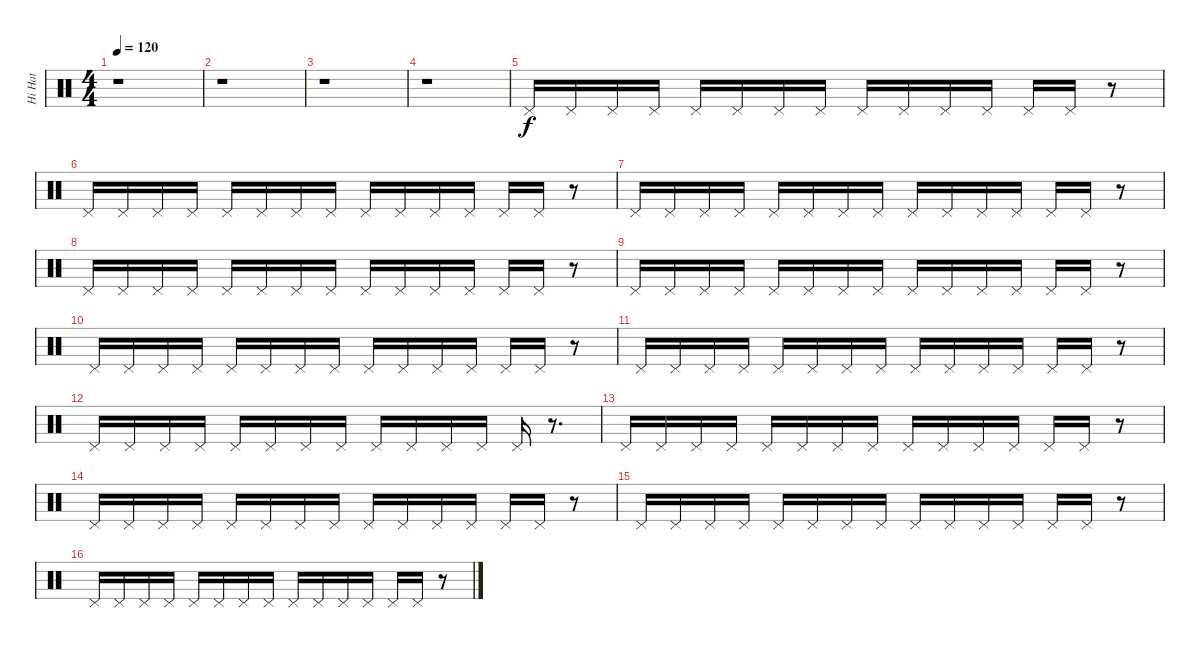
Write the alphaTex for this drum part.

\track ("Hi Hat" "Hi Hat") {instrument percussion}
\staff {score}
\articulation defaults
\ts (4 4)
\tempo 120
\clef neutral
\ks c
r.1{dy f} |
r.1 |
r.1 |
r.1 |
"Pedal Hi-Hat (hit)".16 "Pedal Hi-Hat (hit)".16 "Pedal Hi-Hat (hit)".16 "Pedal Hi-Hat (hit)".16 "Pedal Hi-Hat (hit)".16 "Pedal Hi-Hat (hit)".16 "Pedal Hi-Hat (hit)".16 "Pedal Hi-Hat (hit)".16 "Pedal Hi-Hat (hit)".16 "Pedal Hi-Hat (hit)".16 "Pedal Hi-Hat (hit)".16 "Pedal Hi-Hat (hit)".16 "Pedal Hi-Hat (hit)".16 "Pedal Hi-Hat (hit)".16 r.8 |
"Pedal Hi-Hat (hit)".16 "Pedal Hi-Hat (hit)".16 "Pedal Hi-Hat (hit)".16 "Pedal Hi-Hat (hit)".16 "Pedal Hi-Hat (hit)".16 "Pedal Hi-Hat (hit)".16 "Pedal Hi-Hat (hit)".16 "Pedal Hi-Hat (hit)".16 "Pedal Hi-Hat (hit)".16 "Pedal Hi-Hat (hit)".16 "Pedal Hi-Hat (hit)".16 "Pedal Hi-Hat (hit)".16 "Pedal Hi-Hat (hit)".16 "Pedal Hi-Hat (hit)".16 r.8 |
"Pedal Hi-Hat (hit)".16 "Pedal Hi-Hat (hit)".16 "Pedal Hi-Hat (hit)".16 "Pedal Hi-Hat (hit)".16 "Pedal Hi-Hat (hit)".16 "Pedal Hi-Hat (hit)".16 "Pedal Hi-Hat (hit)".16 "Pedal Hi-Hat (hit)".16 "Pedal Hi-Hat (hit)".16 "Pedal Hi-Hat (hit)".16 "Pedal Hi-Hat (hit)".16 "Pedal Hi-Hat (hit)".16 "Pedal Hi-Hat (hit)".16 "Pedal Hi-Hat (hit)".16 r.8 |
"Pedal Hi-Hat (hit)".16 "Pedal Hi-Hat (hit)".16 "Pedal Hi-Hat (hit)".16 "Pedal Hi-Hat (hit)".16 "Pedal Hi-Hat (hit)".16 "Pedal Hi-Hat (hit)".16 "Pedal Hi-Hat (hit)".16 "Pedal Hi-Hat (hit)".16 "Pedal Hi-Hat (hit)".16 "Pedal Hi-Hat (hit)".16 "Pedal Hi-Hat (hit)".16 "Pedal Hi-Hat (hit)".16 "Pedal Hi-Hat (hit)".16 "Pedal Hi-Hat (hit)".16 r.8 |
"Pedal Hi-Hat (hit)".16 "Pedal Hi-Hat (hit)".16 "Pedal Hi-Hat (hit)".16 "Pedal Hi-Hat (hit)".16 "Pedal Hi-Hat (hit)".16 "Pedal Hi-Hat (hit)".16 "Pedal Hi-Hat (hit)".16 "Pedal Hi-Hat (hit)".16 "Pedal Hi-Hat (hit)".16 "Pedal Hi-Hat (hit)".16 "Pedal Hi-Hat (hit)".16 "Pedal Hi-Hat (hit)".16 "Pedal Hi-Hat (hit)".16 "Pedal Hi-Hat (hit)".16 r.8 |
"Pedal Hi-Hat (hit)".16 "Pedal Hi-Hat (hit)".16 "Pedal Hi-Hat (hit)".16 "Pedal Hi-Hat (hit)".16 "Pedal Hi-Hat (hit)".16 "Pedal Hi-Hat (hit)".16 "Pedal Hi-Hat (hit)".16 "Pedal Hi-Hat (hit)".16 "Pedal Hi-Hat (hit)".16 "Pedal Hi-Hat (hit)".16 "Pedal Hi-Hat (hit)".16 "Pedal Hi-Hat (hit)".16 "Pedal Hi-Hat (hit)".16 "Pedal Hi-Hat (hit)".16 r.8 |
"Pedal Hi-Hat (hit)".16 "Pedal Hi-Hat (hit)".16 "Pedal Hi-Hat (hit)".16 "Pedal Hi-Hat (hit)".16 "Pedal Hi-Hat (hit)".16 "Pedal Hi-Hat (hit)".16 "Pedal Hi-Hat (hit)".16 "Pedal Hi-Hat (hit)".16 "Pedal Hi-Hat (hit)".16 "Pedal Hi-Hat (hit)".16 "Pedal Hi-Hat (hit)".16 "Pedal Hi-Hat (hit)".16 "Pedal Hi-Hat (hit)".16 "Pedal Hi-Hat (hit)".16 r.8 |
"Pedal Hi-Hat (hit)".16 "Pedal Hi-Hat (hit)".16 "Pedal Hi-Hat (hit)".16 "Pedal Hi-Hat (hit)".16 "Pedal Hi-Hat (hit)".16 "Pedal Hi-Hat (hit)".16 "Pedal Hi-Hat (hit)".16 "Pedal Hi-Hat (hit)".16 "Pedal Hi-Hat (hit)".16 "Pedal Hi-Hat (hit)".16 "Pedal Hi-Hat (hit)".16 "Pedal Hi-Hat (hit)".16 "Pedal Hi-Hat (hit)".16 r.8{d} |
"Pedal Hi-Hat (hit)".16 "Pedal Hi-Hat (hit)".16 "Pedal Hi-Hat (hit)".16 "Pedal Hi-Hat (hit)".16 "Pedal Hi-Hat (hit)".16 "Pedal Hi-Hat (hit)".16 "Pedal Hi-Hat (hit)".16 "Pedal Hi-Hat (hit)".16 "Pedal Hi-Hat (hit)".16 "Pedal Hi-Hat (hit)".16 "Pedal Hi-Hat (hit)".16 "Pedal Hi-Hat (hit)".16 "Pedal Hi-Hat (hit)".16 "Pedal Hi-Hat (hit)".16 r.8 |
"Pedal Hi-Hat (hit)".16 "Pedal Hi-Hat (hit)".16 "Pedal Hi-Hat (hit)".16 "Pedal Hi-Hat (hit)".16 "Pedal Hi-Hat (hit)".16 "Pedal Hi-Hat (hit)".16 "Pedal Hi-Hat (hit)".16 "Pedal Hi-Hat (hit)".16 "Pedal Hi-Hat (hit)".16 "Pedal Hi-Hat (hit)".16 "Pedal Hi-Hat (hit)".16 "Pedal Hi-Hat (hit)".16 "Pedal Hi-Hat (hit)".16 "Pedal Hi-Hat (hit)".16 r.8 |
"Pedal Hi-Hat (hit)".16 "Pedal Hi-Hat (hit)".16 "Pedal Hi-Hat (hit)".16 "Pedal Hi-Hat (hit)".16 "Pedal Hi-Hat (hit)".16 "Pedal Hi-Hat (hit)".16 "Pedal Hi-Hat (hit)".16 "Pedal Hi-Hat (hit)".16 "Pedal Hi-Hat (hit)".16 "Pedal Hi-Hat (hit)".16 "Pedal Hi-Hat (hit)".16 "Pedal Hi-Hat (hit)".16 "Pedal Hi-Hat (hit)".16 "Pedal Hi-Hat (hit)".16 r.8 |
"Pedal Hi-Hat (hit)".16 "Pedal Hi-Hat (hit)".16 "Pedal Hi-Hat (hit)".16 "Pedal Hi-Hat (hit)".16 "Pedal Hi-Hat (hit)".16 "Pedal Hi-Hat (hit)".16 "Pedal Hi-Hat (hit)".16 "Pedal Hi-Hat (hit)".16 "Pedal Hi-Hat (hit)".16 "Pedal Hi-Hat (hit)".16 "Pedal Hi-Hat (hit)".16 "Pedal Hi-Hat (hit)".16 "Pedal Hi-Hat (hit)".16 "Pedal Hi-Hat (hit)".16 r.8
